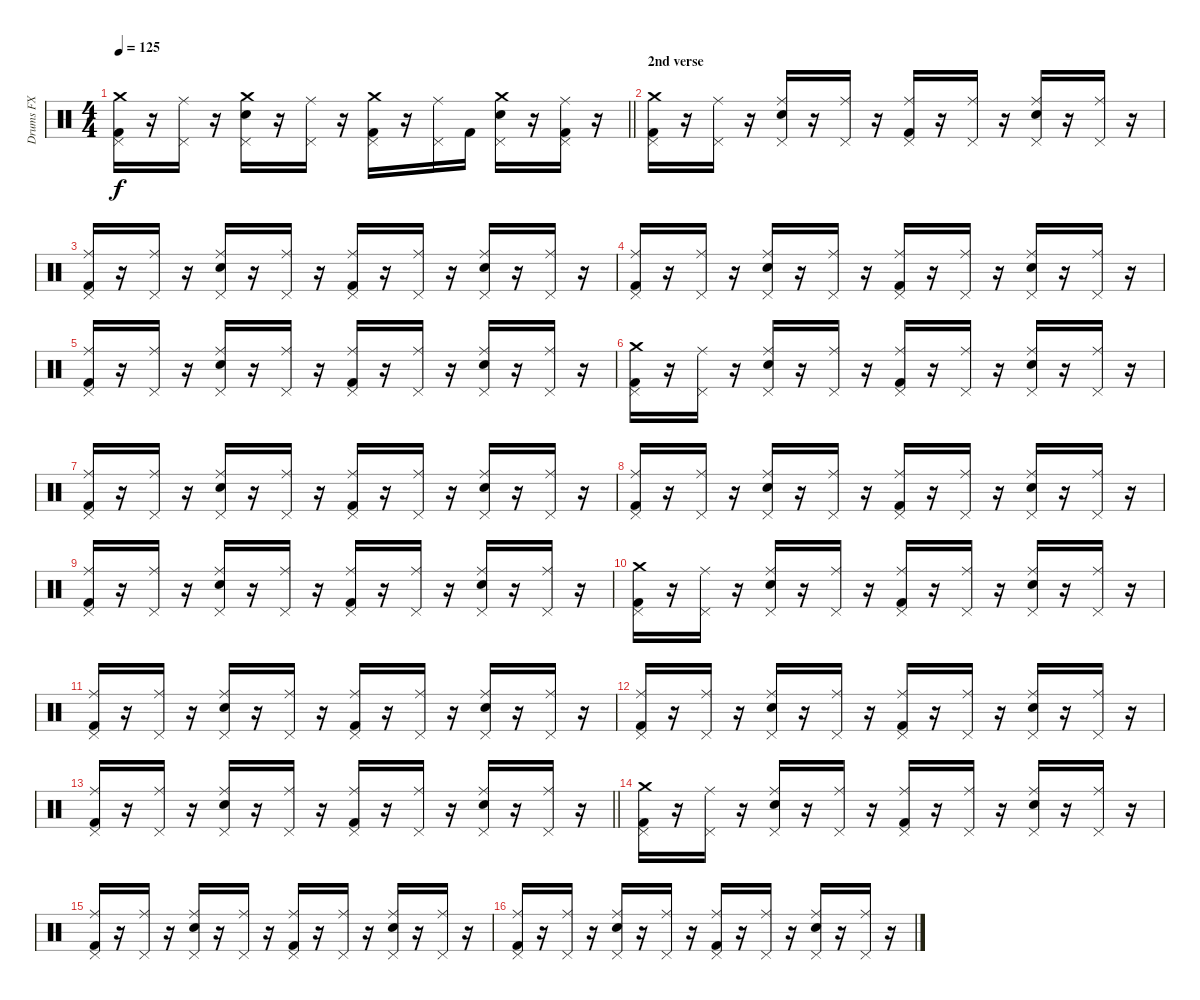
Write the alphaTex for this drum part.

\track ("Drums FX" "Drums FX") {instrument percussion}
\staff {score}
\articulation defaults
\ts (4 4)
\tempo 125
\clef neutral
\barLineRight lightlight
\ks c
("Crash medium (hit)" "Pedal Hi-Hat (hit)" "Kick (hit) 2").16{dy f} r.16 ("Ride (middle)" "Pedal Hi-Hat (hit)").16 r.16 ("Crash medium (hit)" "Snare (hit) 2" "Pedal Hi-Hat (hit)").16 r.16 ("Ride (middle)" "Pedal Hi-Hat (hit)").16 r.16 ("Crash medium (hit)" "Pedal Hi-Hat (hit)" "Kick (hit) 2").16 r.16 ("Ride (middle)" "Pedal Hi-Hat (hit)").16 "Kick (hit) 2".16 ("Crash medium (hit)" "Snare (hit) 2" "Pedal Hi-Hat (hit)").16 r.16 ("Ride (middle)" "Pedal Hi-Hat (hit)" "Kick (hit) 2").16 r.16 |
\section ("" "2nd verse")
("Crash medium (hit)" "Pedal Hi-Hat (hit)" "Kick (hit) 2").16 r.16 ("Ride (middle)" "Pedal Hi-Hat (hit)").16 r.16 ("Ride (middle)" "Snare (hit) 2" "Pedal Hi-Hat (hit)").16 r.16 ("Ride (middle)" "Pedal Hi-Hat (hit)").16 r.16 ("Ride (middle)" "Pedal Hi-Hat (hit)" "Kick (hit) 2").16 r.16 ("Ride (middle)" "Pedal Hi-Hat (hit)").16 r.16 ("Ride (middle)" "Snare (hit) 2" "Pedal Hi-Hat (hit)").16 r.16 ("Ride (middle)" "Pedal Hi-Hat (hit)").16 r.16 |
("Ride (middle)" "Pedal Hi-Hat (hit)" "Kick (hit) 2").16 r.16 ("Ride (middle)" "Pedal Hi-Hat (hit)").16 r.16 ("Ride (middle)" "Snare (hit) 2" "Pedal Hi-Hat (hit)").16 r.16 ("Ride (middle)" "Pedal Hi-Hat (hit)").16 r.16 ("Ride (middle)" "Pedal Hi-Hat (hit)" "Kick (hit) 2").16 r.16 ("Ride (middle)" "Pedal Hi-Hat (hit)").16 r.16 ("Ride (middle)" "Snare (hit) 2" "Pedal Hi-Hat (hit)").16 r.16 ("Ride (middle)" "Pedal Hi-Hat (hit)").16 r.16 |
("Ride (middle)" "Pedal Hi-Hat (hit)" "Kick (hit) 2").16 r.16 ("Ride (middle)" "Pedal Hi-Hat (hit)").16 r.16 ("Ride (middle)" "Snare (hit) 2" "Pedal Hi-Hat (hit)").16 r.16 ("Ride (middle)" "Pedal Hi-Hat (hit)").16 r.16 ("Ride (middle)" "Pedal Hi-Hat (hit)" "Kick (hit) 2").16 r.16 ("Ride (middle)" "Pedal Hi-Hat (hit)").16 r.16 ("Ride (middle)" "Snare (hit) 2" "Pedal Hi-Hat (hit)").16 r.16 ("Ride (middle)" "Pedal Hi-Hat (hit)").16 r.16 |
("Ride (middle)" "Pedal Hi-Hat (hit)" "Kick (hit) 2").16 r.16 ("Ride (middle)" "Pedal Hi-Hat (hit)").16 r.16 ("Ride (middle)" "Snare (hit) 2" "Pedal Hi-Hat (hit)").16 r.16 ("Ride (middle)" "Pedal Hi-Hat (hit)").16 r.16 ("Ride (middle)" "Pedal Hi-Hat (hit)" "Kick (hit) 2").16 r.16 ("Ride (middle)" "Pedal Hi-Hat (hit)").16 r.16 ("Ride (middle)" "Snare (hit) 2" "Pedal Hi-Hat (hit)").16 r.16 ("Ride (middle)" "Pedal Hi-Hat (hit)").16 r.16 |
("Crash medium (hit)" "Pedal Hi-Hat (hit)" "Kick (hit) 2").16 r.16 ("Ride (middle)" "Pedal Hi-Hat (hit)").16 r.16 ("Ride (middle)" "Snare (hit) 2" "Pedal Hi-Hat (hit)").16 r.16 ("Ride (middle)" "Pedal Hi-Hat (hit)").16 r.16 ("Ride (middle)" "Pedal Hi-Hat (hit)" "Kick (hit) 2").16 r.16 ("Ride (middle)" "Pedal Hi-Hat (hit)").16 r.16 ("Ride (middle)" "Snare (hit) 2" "Pedal Hi-Hat (hit)").16 r.16 ("Ride (middle)" "Pedal Hi-Hat (hit)").16 r.16 |
("Ride (middle)" "Pedal Hi-Hat (hit)" "Kick (hit) 2").16 r.16 ("Ride (middle)" "Pedal Hi-Hat (hit)").16 r.16 ("Ride (middle)" "Snare (hit) 2" "Pedal Hi-Hat (hit)").16 r.16 ("Ride (middle)" "Pedal Hi-Hat (hit)").16 r.16 ("Ride (middle)" "Pedal Hi-Hat (hit)" "Kick (hit) 2").16 r.16 ("Ride (middle)" "Pedal Hi-Hat (hit)").16 r.16 ("Ride (middle)" "Snare (hit) 2" "Pedal Hi-Hat (hit)").16 r.16 ("Ride (middle)" "Pedal Hi-Hat (hit)").16 r.16 |
("Ride (middle)" "Pedal Hi-Hat (hit)" "Kick (hit) 2").16 r.16 ("Ride (middle)" "Pedal Hi-Hat (hit)").16 r.16 ("Ride (middle)" "Snare (hit) 2" "Pedal Hi-Hat (hit)").16 r.16 ("Ride (middle)" "Pedal Hi-Hat (hit)").16 r.16 ("Ride (middle)" "Pedal Hi-Hat (hit)" "Kick (hit) 2").16 r.16 ("Ride (middle)" "Pedal Hi-Hat (hit)").16 r.16 ("Ride (middle)" "Snare (hit) 2" "Pedal Hi-Hat (hit)").16 r.16 ("Ride (middle)" "Pedal Hi-Hat (hit)").16 r.16 |
("Ride (middle)" "Pedal Hi-Hat (hit)" "Kick (hit) 2").16 r.16 ("Ride (middle)" "Pedal Hi-Hat (hit)").16 r.16 ("Ride (middle)" "Snare (hit) 2" "Pedal Hi-Hat (hit)").16 r.16 ("Ride (middle)" "Pedal Hi-Hat (hit)").16 r.16 ("Ride (middle)" "Pedal Hi-Hat (hit)" "Kick (hit) 2").16 r.16 ("Ride (middle)" "Pedal Hi-Hat (hit)").16 r.16 ("Ride (middle)" "Snare (hit) 2" "Pedal Hi-Hat (hit)").16 r.16 ("Ride (middle)" "Pedal Hi-Hat (hit)").16 r.16 |
("Crash medium (hit)" "Pedal Hi-Hat (hit)" "Kick (hit) 2").16 r.16 ("Ride (middle)" "Pedal Hi-Hat (hit)").16 r.16 ("Ride (middle)" "Snare (hit) 2" "Pedal Hi-Hat (hit)").16 r.16 ("Ride (middle)" "Pedal Hi-Hat (hit)").16 r.16 ("Ride (middle)" "Pedal Hi-Hat (hit)" "Kick (hit) 2").16 r.16 ("Ride (middle)" "Pedal Hi-Hat (hit)").16 r.16 ("Ride (middle)" "Snare (hit) 2" "Pedal Hi-Hat (hit)").16 r.16 ("Ride (middle)" "Pedal Hi-Hat (hit)").16 r.16 |
("Ride (middle)" "Pedal Hi-Hat (hit)" "Kick (hit) 2").16 r.16 ("Ride (middle)" "Pedal Hi-Hat (hit)").16 r.16 ("Ride (middle)" "Snare (hit) 2" "Pedal Hi-Hat (hit)").16 r.16 ("Ride (middle)" "Pedal Hi-Hat (hit)").16 r.16 ("Ride (middle)" "Pedal Hi-Hat (hit)" "Kick (hit) 2").16 r.16 ("Ride (middle)" "Pedal Hi-Hat (hit)").16 r.16 ("Ride (middle)" "Snare (hit) 2" "Pedal Hi-Hat (hit)").16 r.16 ("Ride (middle)" "Pedal Hi-Hat (hit)").16 r.16 |
("Ride (middle)" "Pedal Hi-Hat (hit)" "Kick (hit) 2").16 r.16 ("Ride (middle)" "Pedal Hi-Hat (hit)").16 r.16 ("Ride (middle)" "Snare (hit) 2" "Pedal Hi-Hat (hit)").16 r.16 ("Ride (middle)" "Pedal Hi-Hat (hit)").16 r.16 ("Ride (middle)" "Pedal Hi-Hat (hit)" "Kick (hit) 2").16 r.16 ("Ride (middle)" "Pedal Hi-Hat (hit)").16 r.16 ("Ride (middle)" "Snare (hit) 2" "Pedal Hi-Hat (hit)").16 r.16 ("Ride (middle)" "Pedal Hi-Hat (hit)").16 r.16 |
\barLineRight lightlight
("Ride (middle)" "Pedal Hi-Hat (hit)" "Kick (hit) 2").16 r.16 ("Ride (middle)" "Pedal Hi-Hat (hit)").16 r.16 ("Ride (middle)" "Snare (hit) 2" "Pedal Hi-Hat (hit)").16 r.16 ("Ride (middle)" "Pedal Hi-Hat (hit)").16 r.16 ("Ride (middle)" "Pedal Hi-Hat (hit)" "Kick (hit) 2").16 r.16 ("Ride (middle)" "Pedal Hi-Hat (hit)").16 r.16 ("Ride (middle)" "Snare (hit) 2" "Pedal Hi-Hat (hit)").16 r.16 ("Ride (middle)" "Pedal Hi-Hat (hit)").16 r.16 |
("Crash medium (hit)" "Pedal Hi-Hat (hit)" "Kick (hit) 2").16 r.16 ("Ride (middle)" "Pedal Hi-Hat (hit)").16 r.16 ("Ride (middle)" "Snare (hit) 2" "Pedal Hi-Hat (hit)").16 r.16 ("Ride (middle)" "Pedal Hi-Hat (hit)").16 r.16 ("Ride (middle)" "Pedal Hi-Hat (hit)" "Kick (hit) 2").16 r.16 ("Ride (middle)" "Pedal Hi-Hat (hit)").16 r.16 ("Ride (middle)" "Snare (hit) 2" "Pedal Hi-Hat (hit)").16 r.16 ("Ride (middle)" "Pedal Hi-Hat (hit)").16 r.16 |
("Ride (middle)" "Pedal Hi-Hat (hit)" "Kick (hit) 2").16 r.16 ("Ride (middle)" "Pedal Hi-Hat (hit)").16 r.16 ("Ride (middle)" "Snare (hit) 2" "Pedal Hi-Hat (hit)").16 r.16 ("Ride (middle)" "Pedal Hi-Hat (hit)").16 r.16 ("Ride (middle)" "Pedal Hi-Hat (hit)" "Kick (hit) 2").16 r.16 ("Ride (middle)" "Pedal Hi-Hat (hit)").16 r.16 ("Ride (middle)" "Snare (hit) 2" "Pedal Hi-Hat (hit)").16 r.16 ("Ride (middle)" "Pedal Hi-Hat (hit)").16 r.16 |
("Ride (middle)" "Pedal Hi-Hat (hit)" "Kick (hit) 2").16 r.16 ("Ride (middle)" "Pedal Hi-Hat (hit)").16 r.16 ("Ride (middle)" "Snare (hit) 2" "Pedal Hi-Hat (hit)").16 r.16 ("Ride (middle)" "Pedal Hi-Hat (hit)").16 r.16 ("Ride (middle)" "Pedal Hi-Hat (hit)" "Kick (hit) 2").16 r.16 ("Ride (middle)" "Pedal Hi-Hat (hit)").16 r.16 ("Ride (middle)" "Snare (hit) 2" "Pedal Hi-Hat (hit)").16 r.16 ("Ride (middle)" "Pedal Hi-Hat (hit)").16 r.16
